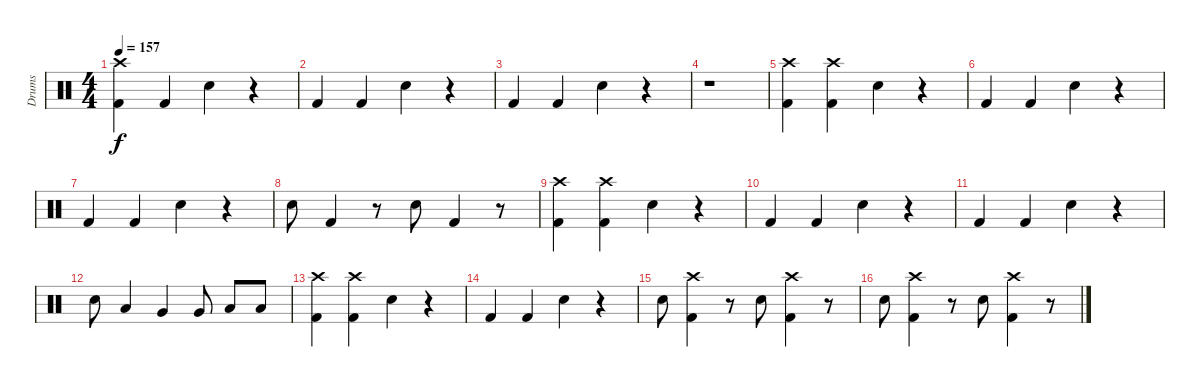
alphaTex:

\track ("Drums" "Drums") {instrument percussion}
\staff {score}
\articulation defaults
\ts (4 4)
\tempo 157
\clef neutral
\ks c
("Crash high (hit)" "Kick (hit) 2").4{dy f} "Kick (hit) 2".4 "Snare (hit) 2".4 r.4 |
"Kick (hit) 2".4 "Kick (hit) 2".4 "Snare (hit) 2".4 r.4 |
"Kick (hit) 2".4 "Kick (hit) 2".4 "Snare (hit) 2".4 r.4 |
r.1 |
("Crash high (hit)" "Kick (hit) 2").4 ("Crash high (hit)" "Kick (hit) 2").4 "Snare (hit) 2".4 r.4 |
"Kick (hit) 2".4 "Kick (hit) 2".4 "Snare (hit) 2".4 r.4 |
"Kick (hit) 2".4 "Kick (hit) 2".4 "Snare (hit) 2".4 r.4 |
"Snare (hit) 2".8 "Kick (hit) 2".4 r.8 "Snare (hit) 2".8 "Kick (hit) 2".4 r.8 |
("Crash high (hit)" "Kick (hit) 2").4 ("Crash high (hit)" "Kick (hit) 2").4 "Snare (hit) 2".4 r.4 |
"Kick (hit) 2".4 "Kick (hit) 2".4 "Snare (hit) 2".4 r.4 |
"Kick (hit) 2".4 "Kick (hit) 2".4 "Snare (hit) 2".4 r.4 |
"Snare (hit) 2".8 "Low Tom (hit)".4 "Very Low Tom (hit)".4 "Very Low Tom (hit)".8 "Low Floor Tom (hit)".8 "Low Floor Tom (hit)".8 |
("Crash high (hit)" "Kick (hit) 2").4 ("Crash high (hit)" "Kick (hit) 2").4 "Snare (hit) 2".4 r.4 |
"Kick (hit) 2".4 "Kick (hit) 2".4 "Snare (hit) 2".4 r.4 |
"Snare (hit) 2".8 ("Crash high (hit)" "Kick (hit) 2").4 r.8 "Snare (hit) 2".8 ("Crash high (hit)" "Kick (hit) 2").4 r.8 |
"Snare (hit) 2".8 ("Crash high (hit)" "Kick (hit) 2").4 r.8 "Snare (hit) 2".8 ("Crash high (hit)" "Kick (hit) 2").4 r.8
